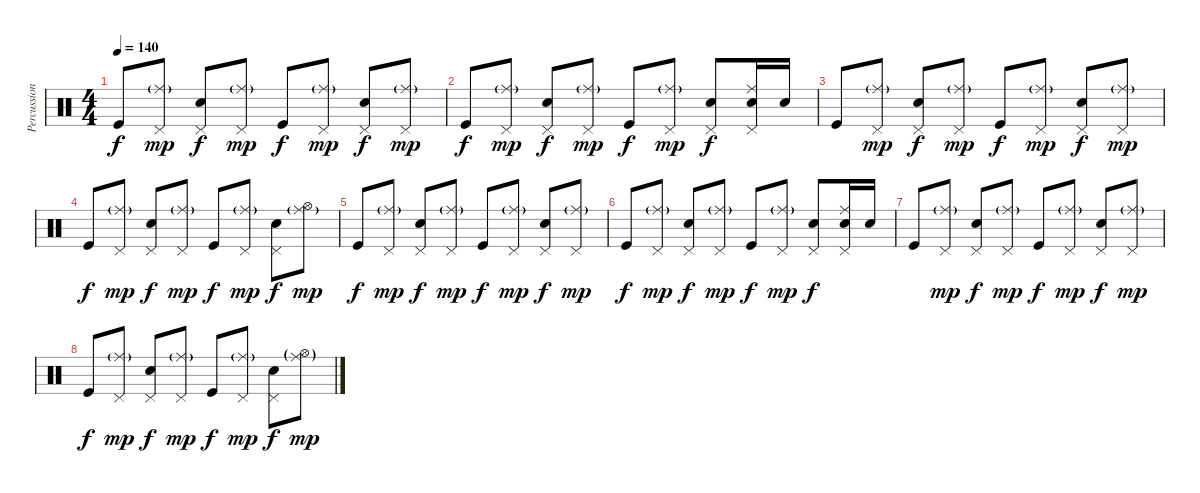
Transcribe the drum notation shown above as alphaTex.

\track ("Percussion" "Percussion") {instrument percussion}
\staff {score}
\articulation defaults
\ts (4 4)
\tempo 140
\clef neutral
\ks c "Kick (hit)".8{dy f}
("Ride (middle)"{g} "Pedal Hi-Hat (hit)").8{dy mp} ("Pedal Hi-Hat (hit)" "Snare (hit) 2").8{dy f} ("Ride (middle)"{g} "Pedal Hi-Hat (hit)").8{dy mp} "Kick (hit)".8{dy f} ("Ride (middle)"{g} "Pedal Hi-Hat (hit)").8{dy mp} ("Pedal Hi-Hat (hit)" "Snare (hit) 2").8{dy f} ("Ride (middle)"{g} "Pedal Hi-Hat (hit)").8{dy mp} |
"Kick (hit)".8{dy f} ("Ride (middle)"{g} "Pedal Hi-Hat (hit)").8{dy mp} ("Pedal Hi-Hat (hit)" "Snare (hit) 2").8{dy f} ("Ride (middle)"{g} "Pedal Hi-Hat (hit)").8{dy mp} "Kick (hit)".8{dy f} ("Ride (middle)"{g} "Pedal Hi-Hat (hit)").8{dy mp} ("Pedal Hi-Hat (hit)" "Snare (hit) 2").8{dy f} ("Ride (middle)" "Pedal Hi-Hat (hit)" "Snare (hit) 2").16 "Snare (hit) 2".16 |
"Kick (hit)".8 ("Ride (middle)"{g} "Pedal Hi-Hat (hit)").8{dy mp} ("Pedal Hi-Hat (hit)" "Snare (hit) 2").8{dy f} ("Ride (middle)"{g} "Pedal Hi-Hat (hit)").8{dy mp} "Kick (hit)".8{dy f} ("Ride (middle)"{g} "Pedal Hi-Hat (hit)").8{dy mp} ("Pedal Hi-Hat (hit)" "Snare (hit) 2").8{dy f} ("Ride (middle)"{g} "Pedal Hi-Hat (hit)").8{dy mp} |
"Kick (hit)".8{dy f} ("Ride (middle)"{g} "Pedal Hi-Hat (hit)").8{dy mp} ("Pedal Hi-Hat (hit)" "Snare (hit) 2").8{dy f} ("Ride (middle)"{g} "Pedal Hi-Hat (hit)").8{dy mp} "Kick (hit)".8{dy f} ("Ride (middle)"{g} "Pedal Hi-Hat (hit)").8{dy mp} ("Pedal Hi-Hat (hit)" "Snare (hit) 2").8{dy f} ("Hi-Hat (open)" "Ride (middle)"{g}).8{dy mp} |
"Kick (hit)".8{dy f} ("Ride (middle)"{g} "Pedal Hi-Hat (hit)").8{dy mp} ("Pedal Hi-Hat (hit)" "Snare (hit) 2").8{dy f} ("Ride (middle)"{g} "Pedal Hi-Hat (hit)").8{dy mp} "Kick (hit)".8{dy f} ("Ride (middle)"{g} "Pedal Hi-Hat (hit)").8{dy mp} ("Pedal Hi-Hat (hit)" "Snare (hit) 2").8{dy f} ("Ride (middle)"{g} "Pedal Hi-Hat (hit)").8{dy mp} |
"Kick (hit)".8{dy f} ("Ride (middle)"{g} "Pedal Hi-Hat (hit)").8{dy mp} ("Pedal Hi-Hat (hit)" "Snare (hit) 2").8{dy f} ("Ride (middle)"{g} "Pedal Hi-Hat (hit)").8{dy mp} "Kick (hit)".8{dy f} ("Ride (middle)"{g} "Pedal Hi-Hat (hit)").8{dy mp} ("Pedal Hi-Hat (hit)" "Snare (hit) 2").8{dy f} ("Ride (middle)" "Pedal Hi-Hat (hit)" "Snare (hit) 2").16 "Snare (hit) 2".16 |
"Kick (hit)".8 ("Ride (middle)"{g} "Pedal Hi-Hat (hit)").8{dy mp} ("Pedal Hi-Hat (hit)" "Snare (hit) 2").8{dy f} ("Ride (middle)"{g} "Pedal Hi-Hat (hit)").8{dy mp} "Kick (hit)".8{dy f} ("Ride (middle)"{g} "Pedal Hi-Hat (hit)").8{dy mp} ("Pedal Hi-Hat (hit)" "Snare (hit) 2").8{dy f} ("Ride (middle)"{g} "Pedal Hi-Hat (hit)").8{dy mp} |
"Kick (hit)".8{dy f} ("Ride (middle)"{g} "Pedal Hi-Hat (hit)").8{dy mp} ("Pedal Hi-Hat (hit)" "Snare (hit) 2").8{dy f} ("Ride (middle)"{g} "Pedal Hi-Hat (hit)").8{dy mp} "Kick (hit)".8{dy f} ("Ride (middle)"{g} "Pedal Hi-Hat (hit)").8{dy mp} ("Pedal Hi-Hat (hit)" "Snare (hit) 2").8{dy f} ("Hi-Hat (open)"{g} "Ride (middle)"{g}).8{dy mp}
